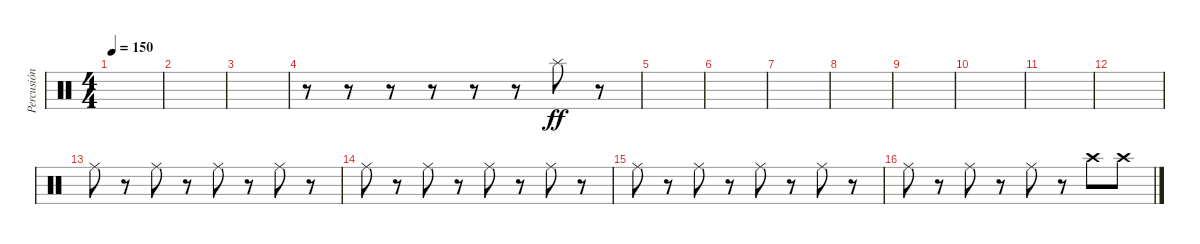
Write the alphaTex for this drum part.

\track ("Percusión" "Percusión") {instrument percussion}
\staff {score}
\articulation defaults
\ts (4 4)
\tempo 150
\clef neutral
\ks c
|
|
|
r.8 r.8 r.8 r.8 r.8 r.8 "Splash (hit)".8{dy ff} r.8 |
|
|
|
|
|
|
|
|
"Ride (middle)".8 r.8 "Ride (middle)".8 r.8 "Ride (middle)".8 r.8 "Ride (middle)".8 r.8 |
"Ride (middle)".8 r.8 "Ride (middle)".8 r.8 "Ride (middle)".8 r.8 "Ride (middle)".8 r.8 |
"Ride (middle)".8 r.8 "Ride (middle)".8 r.8 "Ride (middle)".8 r.8 "Ride (middle)".8 r.8 |
"Ride (middle)".8 r.8 "Ride (middle)".8 r.8 "Ride (middle)".8 r.8 "Crash high (hit)".8 "Crash high (hit)".8
